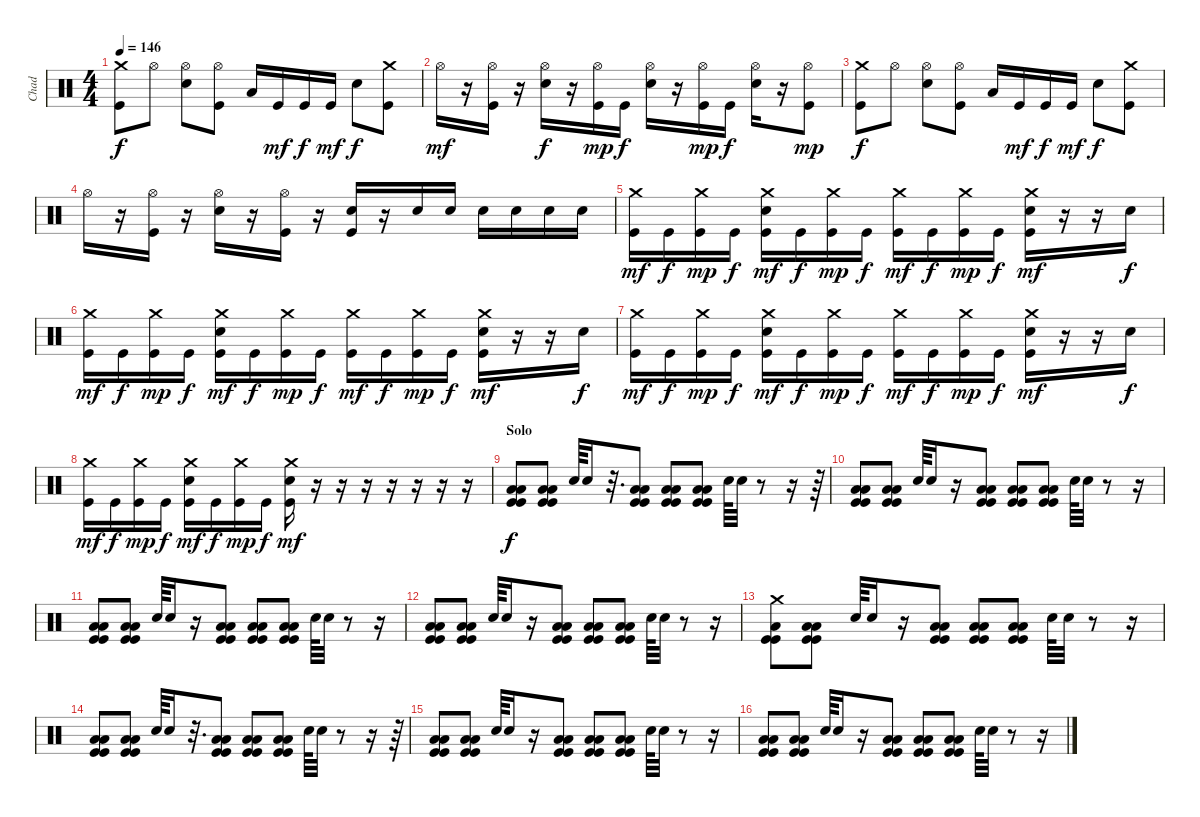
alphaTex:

\track ("Chad" "Chad") {instrument percussion}
\staff {score}
\articulation defaults
\ts (4 4)
\tempo 146
\clef neutral
\ks c
("Crash medium (hit)" "Kick (hit)").8{dy f} "Hi-Hat (open)".8 ("Hi-Hat (open)" "Snare (hit) 2").8 ("Hi-Hat (open)" "Kick (hit)").8 "Low Floor Tom (hit)".16 "Kick (hit)".16{dy mf} "Kick (hit)".16{dy f} "Kick (hit)".16{dy mf} "Snare (hit) 2".8{dy f} ("Crash medium (hit)" "Kick (hit)").8 |
"Hi-Hat (open)".16{dy mf} r.16 ("Hi-Hat (open)" "Kick (hit)").16 r.16 ("Hi-Hat (open)" "Snare (hit) 2").16{dy f} r.16 ("Hi-Hat (open)" "Kick (hit)").16{dy mp} "Kick (hit)".16{dy f} ("Hi-Hat (open)" "Snare (hit) 2").16 r.16 ("Hi-Hat (open)" "Kick (hit)").16{dy mp} "Kick (hit)".16{dy f} ("Hi-Hat (open)" "Snare (hit) 2").16 r.16 ("Hi-Hat (open)" "Kick (hit)").8{dy mp} |
("Crash medium (hit)" "Kick (hit)").8{dy f} "Hi-Hat (open)".8 ("Hi-Hat (open)" "Snare (hit) 2").8 ("Hi-Hat (open)" "Kick (hit)").8 "Low Floor Tom (hit)".16 "Kick (hit)".16{dy mf} "Kick (hit)".16{dy f} "Kick (hit)".16{dy mf} "Snare (hit) 2".8{dy f} ("Crash medium (hit)" "Kick (hit)").8 |
"Hi-Hat (open)".16 r.16 ("Hi-Hat (open)" "Kick (hit)").16 r.16 ("Hi-Hat (open)" "Snare (hit) 2").16 r.16 ("Hi-Hat (open)" "Kick (hit)").16 r.16 ("Snare (hit) 2" "Kick (hit)").16 r.16 "Snare (hit) 2".16 "Snare (hit) 2".16 "Snare (hit) 2".16 "Snare (hit) 2".16 "Snare (hit) 2".16 "Snare (hit) 2".16 |
("Crash medium (hit)" "Kick (hit)").16{dy mf} "Kick (hit)".16{dy f} ("Crash medium (hit)" "Kick (hit)").16{dy mp} "Kick (hit)".16{dy f} ("Crash medium (hit)" "Snare (hit) 2" "Kick (hit)").16{dy mf} "Kick (hit)".16{dy f} ("Crash medium (hit)" "Kick (hit)").16{dy mp} "Kick (hit)".16{dy f} ("Crash medium (hit)" "Kick (hit)").16{dy mf} "Kick (hit)".16{dy f} ("Crash medium (hit)" "Kick (hit)").16{dy mp} "Kick (hit)".16{dy f} ("Crash medium (hit)" "Snare (hit) 2" "Kick (hit)").16{dy mf} r.16 r.16 "Snare (hit) 2".16{dy f} |
("Crash medium (hit)" "Kick (hit)").16{dy mf} "Kick (hit)".16{dy f} ("Crash medium (hit)" "Kick (hit)").16{dy mp} "Kick (hit)".16{dy f} ("Crash medium (hit)" "Snare (hit) 2" "Kick (hit)").16{dy mf} "Kick (hit)".16{dy f} ("Crash medium (hit)" "Kick (hit)").16{dy mp} "Kick (hit)".16{dy f} ("Crash medium (hit)" "Kick (hit)").16{dy mf} "Kick (hit)".16{dy f} ("Crash medium (hit)" "Kick (hit)").16{dy mp} "Kick (hit)".16{dy f} ("Crash medium (hit)" "Snare (hit) 2" "Kick (hit)").16{dy mf} r.16 r.16 "Snare (hit) 2".16{dy f} |
("Crash medium (hit)" "Kick (hit)").16{dy mf} "Kick (hit)".16{dy f} ("Crash medium (hit)" "Kick (hit)").16{dy mp} "Kick (hit)".16{dy f} ("Crash medium (hit)" "Snare (hit) 2" "Kick (hit)").16{dy mf} "Kick (hit)".16{dy f} ("Crash medium (hit)" "Kick (hit)").16{dy mp} "Kick (hit)".16{dy f} ("Crash medium (hit)" "Kick (hit)").16{dy mf} "Kick (hit)".16{dy f} ("Crash medium (hit)" "Kick (hit)").16{dy mp} "Kick (hit)".16{dy f} ("Crash medium (hit)" "Snare (hit) 2" "Kick (hit)").16{dy mf} r.16 r.16 "Snare (hit) 2".16{dy f} |
("Crash medium (hit)" "Kick (hit)").16{dy mf} "Kick (hit)".16{dy f} ("Crash medium (hit)" "Kick (hit)").16{dy mp} "Kick (hit)".16{dy f} ("Crash medium (hit)" "Snare (hit) 2" "Kick (hit)").16{dy mf} "Kick (hit)".16{dy f} ("Crash medium (hit)" "Kick (hit)").16{dy mp} "Kick (hit)".16{dy f} ("Crash medium (hit)" "Snare (hit) 2" "Kick (hit)").16{dy mf} r.16 r.16 r.16 r.16 r.16 r.16 r.16 |
\section ("" "Solo")
("Low Tom (hit)" "Low Floor Tom (hit)" "Kick (hit)" "Kick (hit)").8{dy f} ("Low Tom (hit)" "Low Floor Tom (hit)" "Kick (hit)" "Kick (hit)").8 "Snare (hit) 2".64 "Snare (hit) 2".16 r.32{d} ("Low Tom (hit)" "Low Floor Tom (hit)" "Kick (hit)" "Kick (hit)").8 ("Low Tom (hit)" "Low Floor Tom (hit)" "Kick (hit)" "Kick (hit)").8 ("Low Tom (hit)" "Low Floor Tom (hit)" "Kick (hit)" "Kick (hit)").8 "Snare (hit) 2".64 "Snare (hit) 2".32 r.8 r.16 r.64 |
("Low Tom (hit)" "Low Floor Tom (hit)" "Kick (hit)" "Kick (hit)").8 ("Low Tom (hit)" "Low Floor Tom (hit)" "Kick (hit)" "Kick (hit)").8 "Snare (hit) 2".64 "Snare (hit) 2".16 r.16 ("Low Tom (hit)" "Low Floor Tom (hit)" "Kick (hit)" "Kick (hit)").8 ("Low Tom (hit)" "Low Floor Tom (hit)" "Kick (hit)" "Kick (hit)").8 ("Low Tom (hit)" "Low Floor Tom (hit)" "Kick (hit)" "Kick (hit)").8 "Snare (hit) 2".64 "Snare (hit) 2".32 r.8 r.16 |
("Low Tom (hit)" "Low Floor Tom (hit)" "Kick (hit)" "Kick (hit)").8 ("Low Tom (hit)" "Low Floor Tom (hit)" "Kick (hit)" "Kick (hit)").8 "Snare (hit) 2".64 "Snare (hit) 2".16 r.16 ("Low Tom (hit)" "Low Floor Tom (hit)" "Kick (hit)" "Kick (hit)").8 ("Low Tom (hit)" "Low Floor Tom (hit)" "Kick (hit)" "Kick (hit)").8 ("Low Tom (hit)" "Low Floor Tom (hit)" "Kick (hit)" "Kick (hit)").8 "Snare (hit) 2".64 "Snare (hit) 2".32 r.8 r.16 |
("Low Tom (hit)" "Low Floor Tom (hit)" "Kick (hit)" "Kick (hit)").8 ("Low Tom (hit)" "Low Floor Tom (hit)" "Kick (hit)" "Kick (hit)").8 "Snare (hit) 2".64 "Snare (hit) 2".16 r.16 ("Low Tom (hit)" "Low Floor Tom (hit)" "Kick (hit)" "Kick (hit)").8 ("Low Tom (hit)" "Low Floor Tom (hit)" "Kick (hit)" "Kick (hit)").8 ("Low Tom (hit)" "Low Floor Tom (hit)" "Kick (hit)" "Kick (hit)").8 "Snare (hit) 2".64 "Snare (hit) 2".32 r.8 r.16 |
("Crash medium (hit)" "Low Tom (hit)" "Kick (hit)" "Kick (hit)").8 ("Low Tom (hit)" "Low Floor Tom (hit)" "Kick (hit)" "Kick (hit)").8 "Snare (hit) 2".64 "Snare (hit) 2".16 r.16 ("Low Tom (hit)" "Low Floor Tom (hit)" "Kick (hit)" "Kick (hit)").8 ("Low Tom (hit)" "Low Floor Tom (hit)" "Kick (hit)" "Kick (hit)").8 ("Low Tom (hit)" "Low Floor Tom (hit)" "Kick (hit)" "Kick (hit)").8 "Snare (hit) 2".64 "Snare (hit) 2".32 r.8 r.16 |
("Low Tom (hit)" "Low Floor Tom (hit)" "Kick (hit)" "Kick (hit)").8 ("Low Tom (hit)" "Low Floor Tom (hit)" "Kick (hit)" "Kick (hit)").8 "Snare (hit) 2".64 "Snare (hit) 2".16 r.32{d} ("Low Tom (hit)" "Low Floor Tom (hit)" "Kick (hit)" "Kick (hit)").8 ("Low Tom (hit)" "Low Floor Tom (hit)" "Kick (hit)" "Kick (hit)").8 ("Low Tom (hit)" "Low Floor Tom (hit)" "Kick (hit)" "Kick (hit)").8 "Snare (hit) 2".64 "Snare (hit) 2".32 r.8 r.16 r.64 |
("Low Tom (hit)" "Low Floor Tom (hit)" "Kick (hit)" "Kick (hit)").8 ("Low Tom (hit)" "Low Floor Tom (hit)" "Kick (hit)" "Kick (hit)").8 "Snare (hit) 2".64 "Snare (hit) 2".16 r.16 ("Low Tom (hit)" "Low Floor Tom (hit)" "Kick (hit)" "Kick (hit)").8 ("Low Tom (hit)" "Low Floor Tom (hit)" "Kick (hit)" "Kick (hit)").8 ("Low Tom (hit)" "Low Floor Tom (hit)" "Kick (hit)" "Kick (hit)").8 "Snare (hit) 2".64 "Snare (hit) 2".32 r.8 r.16 |
("Low Tom (hit)" "Low Floor Tom (hit)" "Kick (hit)" "Kick (hit)").8 ("Low Tom (hit)" "Low Floor Tom (hit)" "Kick (hit)" "Kick (hit)").8 "Snare (hit) 2".64 "Snare (hit) 2".16 r.16 ("Low Tom (hit)" "Low Floor Tom (hit)" "Kick (hit)" "Kick (hit)").8 ("Low Tom (hit)" "Low Floor Tom (hit)" "Kick (hit)" "Kick (hit)").8 ("Low Tom (hit)" "Low Floor Tom (hit)" "Kick (hit)" "Kick (hit)").8 "Snare (hit) 2".64 "Snare (hit) 2".32 r.8 r.16
